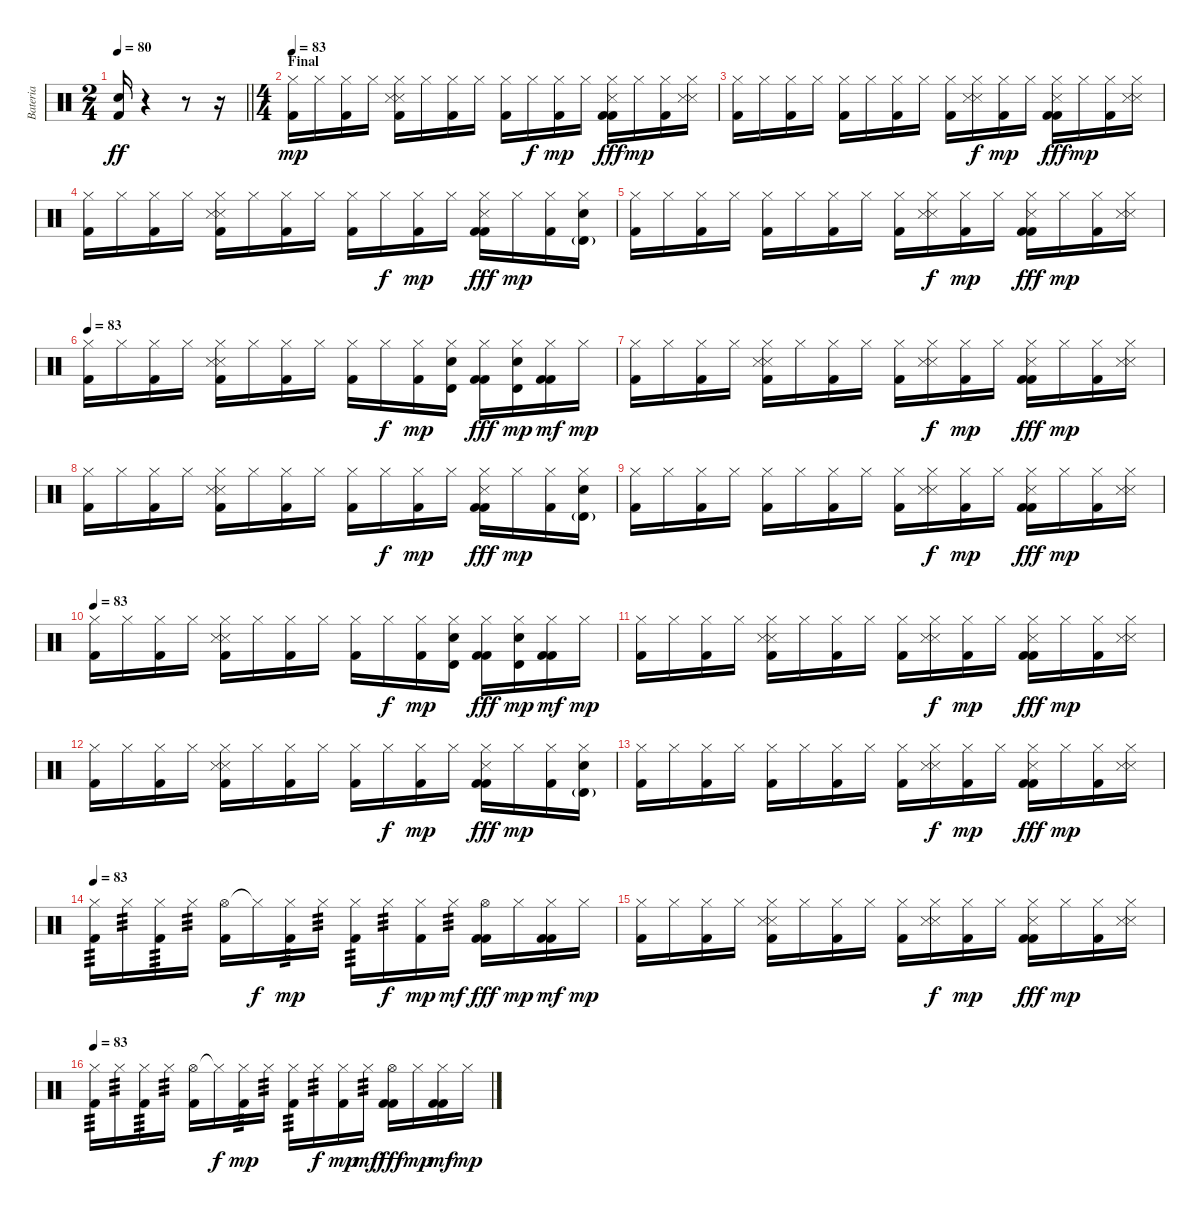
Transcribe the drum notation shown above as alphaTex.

\track ("Bateria" "Bateria") {instrument percussion}
\staff {score}
\articulation defaults
\ts (2 4)
\tempo 80
\clef neutral
\barLineRight lightlight
\ks c
("Electric Snare (hit)" "Kick (hit) 2").16{dy ff} r.4 r.8 r.16 |
\ts (4 4)
\section ("" "Final")
\tempo 83
("Hi-Hat (closed)" "Kick (hit) 2").16{dy mp} "Hi-Hat (closed)".16 ("Hi-Hat (closed)" "Kick (hit) 2").16 "Hi-Hat (closed)".16 ("Hi-Hat (closed)" "Kick (hit) 2" "Snare (side stick) 3" "Snare (side stick) 3").16 "Hi-Hat (closed)".16 ("Hi-Hat (closed)" "Kick (hit) 2").16 "Hi-Hat (closed)".16 ("Hi-Hat (closed)" "Kick (hit) 2").16 "Hi-Hat (closed)".16{dy f} ("Hi-Hat (closed)" "Kick (hit) 2").16{dy mp} "Hi-Hat (closed)".16 ("Hi-Hat (closed)" "Snare (side stick) 3" "Kick (hit) 2" "Kick (hit) 2").16{dy fff} "Hi-Hat (closed)".16{dy mp} ("Hi-Hat (closed)" "Kick (hit) 2").16 ("Hi-Hat (closed)" "Snare (side stick) 3" "Snare (side stick) 3").16 |
("Hi-Hat (closed)" "Kick (hit) 2").16 "Hi-Hat (closed)".16 ("Hi-Hat (closed)" "Kick (hit) 2").16 "Hi-Hat (closed)".16 ("Hi-Hat (closed)" "Kick (hit) 2").16 "Hi-Hat (closed)".16 ("Hi-Hat (closed)" "Kick (hit) 2").16 "Hi-Hat (closed)".16 ("Hi-Hat (closed)" "Kick (hit) 2").16 ("Hi-Hat (closed)" "Snare (side stick) 3" "Snare (side stick) 3").16{dy f} ("Hi-Hat (closed)" "Kick (hit) 2").16{dy mp} "Hi-Hat (closed)".16 ("Hi-Hat (closed)" "Snare (side stick) 3" "Kick (hit) 2" "Kick (hit) 2").16{dy fff} "Hi-Hat (closed)".16{dy mp} ("Hi-Hat (closed)" "Kick (hit) 2").16 ("Hi-Hat (closed)" "Snare (side stick) 3" "Snare (side stick) 3").16 |
("Hi-Hat (closed)" "Kick (hit) 2").16 "Hi-Hat (closed)".16 ("Hi-Hat (closed)" "Kick (hit) 2").16 "Hi-Hat (closed)".16 ("Hi-Hat (closed)" "Kick (hit) 2" "Snare (side stick) 3" "Snare (side stick) 3").16 "Hi-Hat (closed)".16 ("Hi-Hat (closed)" "Kick (hit) 2").16 "Hi-Hat (closed)".16 ("Hi-Hat (closed)" "Kick (hit) 2").16 "Hi-Hat (closed)".16{dy f} ("Hi-Hat (closed)" "Kick (hit) 2").16{dy mp} "Hi-Hat (closed)".16 ("Hi-Hat (closed)" "Snare (side stick) 3" "Kick (hit) 2" "Kick (hit) 2").16{dy fff} "Hi-Hat (closed)".16{dy mp} ("Hi-Hat (closed)" "Kick (hit) 2").16 ("Hi-Hat (closed)" "Timbale high (hit)"{g} "Electric Snare (hit)").16 |
("Hi-Hat (closed)" "Kick (hit) 2").16 "Hi-Hat (closed)".16 ("Hi-Hat (closed)" "Kick (hit) 2").16 "Hi-Hat (closed)".16 ("Hi-Hat (closed)" "Kick (hit) 2").16 "Hi-Hat (closed)".16 ("Hi-Hat (closed)" "Kick (hit) 2").16 "Hi-Hat (closed)".16 ("Hi-Hat (closed)" "Kick (hit) 2").16 ("Hi-Hat (closed)" "Snare (side stick) 3" "Snare (side stick) 3").16{dy f} ("Hi-Hat (closed)" "Kick (hit) 2").16{dy mp} "Hi-Hat (closed)".16 ("Hi-Hat (closed)" "Snare (side stick) 3" "Kick (hit) 2" "Kick (hit) 2").16{dy fff} "Hi-Hat (closed)".16{dy mp} ("Hi-Hat (closed)" "Kick (hit) 2").16 ("Hi-Hat (closed)" "Snare (side stick) 3" "Snare (side stick) 3").16 |
\tempo 83
("Hi-Hat (closed)" "Kick (hit) 2").16 "Hi-Hat (closed)".16 ("Hi-Hat (closed)" "Kick (hit) 2").16 "Hi-Hat (closed)".16 ("Hi-Hat (closed)" "Kick (hit) 2" "Snare (side stick) 3" "Snare (side stick) 3").16 "Hi-Hat (closed)".16 ("Hi-Hat (closed)" "Kick (hit) 2").16 "Hi-Hat (closed)".16 ("Hi-Hat (closed)" "Kick (hit) 2").16 "Hi-Hat (closed)".16{dy f} ("Hi-Hat (closed)" "Kick (hit) 2").16{dy mp} ("Hi-Hat (closed)" "Electric Snare (hit)" "Timbale high (hit)").16 ("Hi-Hat (closed)" "Kick (hit) 2" "Kick (hit) 2").16{dy fff} ("Hi-Hat (closed)" "Electric Snare (hit)" "Timbale high (hit)").16{dy mp} ("Hi-Hat (closed)" "Kick (hit) 2" "Kick (hit) 2").16{dy mf} "Hi-Hat (closed)".16{dy mp} |
("Hi-Hat (closed)" "Kick (hit) 2").16 "Hi-Hat (closed)".16 ("Hi-Hat (closed)" "Kick (hit) 2").16 "Hi-Hat (closed)".16 ("Hi-Hat (closed)" "Kick (hit) 2" "Snare (side stick) 3" "Snare (side stick) 3").16 "Hi-Hat (closed)".16 ("Hi-Hat (closed)" "Kick (hit) 2").16 "Hi-Hat (closed)".16 ("Hi-Hat (closed)" "Kick (hit) 2").16 ("Hi-Hat (closed)" "Snare (side stick) 3" "Snare (side stick) 3").16{dy f} ("Hi-Hat (closed)" "Kick (hit) 2").16{dy mp} "Hi-Hat (closed)".16 ("Hi-Hat (closed)" "Snare (side stick) 3" "Kick (hit) 2" "Kick (hit) 2").16{dy fff} "Hi-Hat (closed)".16{dy mp} ("Hi-Hat (closed)" "Kick (hit) 2").16 ("Hi-Hat (closed)" "Snare (side stick) 3" "Snare (side stick) 3").16 |
("Hi-Hat (closed)" "Kick (hit) 2").16 "Hi-Hat (closed)".16 ("Hi-Hat (closed)" "Kick (hit) 2").16 "Hi-Hat (closed)".16 ("Hi-Hat (closed)" "Kick (hit) 2" "Snare (side stick) 3" "Snare (side stick) 3").16 "Hi-Hat (closed)".16 ("Hi-Hat (closed)" "Kick (hit) 2").16 "Hi-Hat (closed)".16 ("Hi-Hat (closed)" "Kick (hit) 2").16 "Hi-Hat (closed)".16{dy f} ("Hi-Hat (closed)" "Kick (hit) 2").16{dy mp} "Hi-Hat (closed)".16 ("Hi-Hat (closed)" "Snare (side stick) 3" "Kick (hit) 2" "Kick (hit) 2").16{dy fff} "Hi-Hat (closed)".16{dy mp} ("Hi-Hat (closed)" "Kick (hit) 2").16 ("Hi-Hat (closed)" "Timbale high (hit)"{g} "Electric Snare (hit)").16 |
("Hi-Hat (closed)" "Kick (hit) 2").16 "Hi-Hat (closed)".16 ("Hi-Hat (closed)" "Kick (hit) 2").16 "Hi-Hat (closed)".16 ("Hi-Hat (closed)" "Kick (hit) 2").16 "Hi-Hat (closed)".16 ("Hi-Hat (closed)" "Kick (hit) 2").16 "Hi-Hat (closed)".16 ("Hi-Hat (closed)" "Kick (hit) 2").16 ("Hi-Hat (closed)" "Snare (side stick) 3" "Snare (side stick) 3").16{dy f} ("Hi-Hat (closed)" "Kick (hit) 2").16{dy mp} "Hi-Hat (closed)".16 ("Hi-Hat (closed)" "Snare (side stick) 3" "Kick (hit) 2" "Kick (hit) 2").16{dy fff} "Hi-Hat (closed)".16{dy mp} ("Hi-Hat (closed)" "Kick (hit) 2").16 ("Hi-Hat (closed)" "Snare (side stick) 3" "Snare (side stick) 3").16 |
\tempo 83
("Hi-Hat (closed)" "Kick (hit) 2").16 "Hi-Hat (closed)".16 ("Hi-Hat (closed)" "Kick (hit) 2").16 "Hi-Hat (closed)".16 ("Hi-Hat (closed)" "Kick (hit) 2" "Snare (side stick) 3" "Snare (side stick) 3").16 "Hi-Hat (closed)".16 ("Hi-Hat (closed)" "Kick (hit) 2").16 "Hi-Hat (closed)".16 ("Hi-Hat (closed)" "Kick (hit) 2").16 "Hi-Hat (closed)".16{dy f} ("Hi-Hat (closed)" "Kick (hit) 2").16{dy mp} ("Hi-Hat (closed)" "Electric Snare (hit)" "Timbale high (hit)").16 ("Hi-Hat (closed)" "Kick (hit) 2" "Kick (hit) 2").16{dy fff} ("Hi-Hat (closed)" "Electric Snare (hit)" "Timbale high (hit)").16{dy mp} ("Hi-Hat (closed)" "Kick (hit) 2" "Kick (hit) 2").16{dy mf} "Hi-Hat (closed)".16{dy mp} |
("Hi-Hat (closed)" "Kick (hit) 2").16 "Hi-Hat (closed)".16 ("Hi-Hat (closed)" "Kick (hit) 2").16 "Hi-Hat (closed)".16 ("Hi-Hat (closed)" "Kick (hit) 2" "Snare (side stick) 3" "Snare (side stick) 3").16 "Hi-Hat (closed)".16 ("Hi-Hat (closed)" "Kick (hit) 2").16 "Hi-Hat (closed)".16 ("Hi-Hat (closed)" "Kick (hit) 2").16 ("Hi-Hat (closed)" "Snare (side stick) 3" "Snare (side stick) 3").16{dy f} ("Hi-Hat (closed)" "Kick (hit) 2").16{dy mp} "Hi-Hat (closed)".16 ("Hi-Hat (closed)" "Snare (side stick) 3" "Kick (hit) 2" "Kick (hit) 2").16{dy fff} "Hi-Hat (closed)".16{dy mp} ("Hi-Hat (closed)" "Kick (hit) 2").16 ("Hi-Hat (closed)" "Snare (side stick) 3" "Snare (side stick) 3").16 |
("Hi-Hat (closed)" "Kick (hit) 2").16 "Hi-Hat (closed)".16 ("Hi-Hat (closed)" "Kick (hit) 2").16 "Hi-Hat (closed)".16 ("Hi-Hat (closed)" "Kick (hit) 2" "Snare (side stick) 3" "Snare (side stick) 3").16 "Hi-Hat (closed)".16 ("Hi-Hat (closed)" "Kick (hit) 2").16 "Hi-Hat (closed)".16 ("Hi-Hat (closed)" "Kick (hit) 2").16 "Hi-Hat (closed)".16{dy f} ("Hi-Hat (closed)" "Kick (hit) 2").16{dy mp} "Hi-Hat (closed)".16 ("Hi-Hat (closed)" "Snare (side stick) 3" "Kick (hit) 2" "Kick (hit) 2").16{dy fff} "Hi-Hat (closed)".16{dy mp} ("Hi-Hat (closed)" "Kick (hit) 2").16 ("Hi-Hat (closed)" "Timbale high (hit)"{g} "Electric Snare (hit)").16 |
("Hi-Hat (closed)" "Kick (hit) 2").16{volume 0} "Hi-Hat (closed)".16 ("Hi-Hat (closed)" "Kick (hit) 2").16 "Hi-Hat (closed)".16 ("Hi-Hat (closed)" "Kick (hit) 2").16 "Hi-Hat (closed)".16 ("Hi-Hat (closed)" "Kick (hit) 2").16 "Hi-Hat (closed)".16 ("Hi-Hat (closed)" "Kick (hit) 2").16 ("Hi-Hat (closed)" "Snare (side stick) 3" "Snare (side stick) 3").16{dy f} ("Hi-Hat (closed)" "Kick (hit) 2").16{dy mp} "Hi-Hat (closed)".16 ("Hi-Hat (closed)" "Snare (side stick) 3" "Kick (hit) 2" "Kick (hit) 2").16{dy fff} "Hi-Hat (closed)".16{dy mp} ("Hi-Hat (closed)" "Kick (hit) 2").16 ("Hi-Hat (closed)" "Snare (side stick) 3" "Snare (side stick) 3").16 |
\tempo 83
("Hi-Hat (closed)" "Kick (hit) 2").16{tp 3} "Hi-Hat (closed)".16{tp 3} ("Hi-Hat (closed)" "Kick (hit) 2").16{tp 3} "Hi-Hat (closed)".16{tp 3} ("Hi-Hat (open)" "Kick (hit) 2").16 "Hi-Hat (closed)"{t}.16{dy f} ("Hi-Hat (closed)" "Kick (hit) 2").16{tp 3 dy mp} "Hi-Hat (closed)".16{tp 3} ("Hi-Hat (closed)" "Kick (hit) 2").16{tp 3} "Hi-Hat (closed)".16{tp 3 dy f} ("Hi-Hat (closed)" "Kick (hit) 2").16{dy mp} "Hi-Hat (closed)".16{tp 3 dy mf} ("Hi-Hat (open)" "Kick (hit) 2" "Kick (hit) 2").16{dy fff} "Hi-Hat (closed)".16{dy mp} ("Hi-Hat (closed)" "Kick (hit) 2" "Kick (hit) 2").16{dy mf} "Hi-Hat (closed)".16{dy mp} |
("Hi-Hat (closed)" "Kick (hit) 2").16 "Hi-Hat (closed)".16 ("Hi-Hat (closed)" "Kick (hit) 2").16 "Hi-Hat (closed)".16 ("Hi-Hat (closed)" "Kick (hit) 2" "Snare (side stick) 3" "Snare (side stick) 3").16 "Hi-Hat (closed)".16 ("Hi-Hat (closed)" "Kick (hit) 2").16 "Hi-Hat (closed)".16 ("Hi-Hat (closed)" "Kick (hit) 2").16 ("Hi-Hat (closed)" "Snare (side stick) 3" "Snare (side stick) 3").16{dy f} ("Hi-Hat (closed)" "Kick (hit) 2").16{dy mp} "Hi-Hat (closed)".16 ("Hi-Hat (closed)" "Snare (side stick) 3" "Kick (hit) 2" "Kick (hit) 2").16{dy fff} "Hi-Hat (closed)".16{dy mp} ("Hi-Hat (closed)" "Kick (hit) 2").16 ("Hi-Hat (closed)" "Snare (side stick) 3" "Snare (side stick) 3").16 |
\tempo 83
("Hi-Hat (closed)" "Kick (hit) 2").16{tp 3} "Hi-Hat (closed)".16{tp 3} ("Hi-Hat (closed)" "Kick (hit) 2").16{tp 3} "Hi-Hat (closed)".16{tp 3} ("Hi-Hat (open)" "Kick (hit) 2").16 "Hi-Hat (closed)"{t}.16{dy f} ("Hi-Hat (closed)" "Kick (hit) 2").16{tp 3 dy mp} "Hi-Hat (closed)".16{tp 3} ("Hi-Hat (closed)" "Kick (hit) 2").16{tp 3} "Hi-Hat (closed)".16{tp 3 dy f} ("Hi-Hat (closed)" "Kick (hit) 2").16{dy mp} "Hi-Hat (closed)".16{tp 3 dy mf} ("Hi-Hat (open)" "Kick (hit) 2" "Kick (hit) 2").16{dy fff} "Hi-Hat (closed)".16{dy mp} ("Hi-Hat (closed)" "Kick (hit) 2" "Kick (hit) 2").16{dy mf} "Hi-Hat (closed)".16{dy mp}
